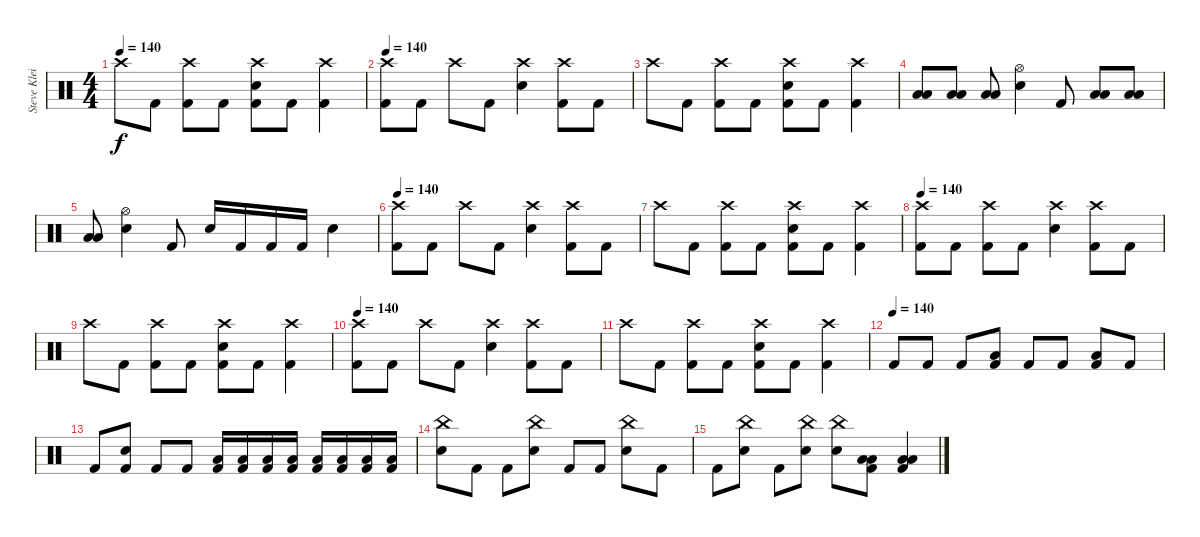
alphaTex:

\track ("Steve Kleisath" "Steve Klei") {instrument percussion}
\staff
\articulation defaults
\ts (4 4)
\tempo 140
\clef neutral
\ks c "Crash high (hit)".8{dy f} "Kick (hit) 2".8
("Crash high (hit)" "Kick (hit) 2").8 "Kick (hit) 2".8 ("Crash high (hit)" "Electric Snare (hit)" "Kick (hit) 2").8 "Kick (hit) 2".8 ("Crash high (hit)" "Kick (hit) 2").4 |
\tempo 140
("Crash high (hit)" "Kick (hit) 2").8 "Kick (hit) 2".8 "Crash high (hit)".8 "Kick (hit) 2".8 ("Crash high (hit)" "Electric Snare (hit)").4 ("Crash high (hit)" "Kick (hit) 2").8 "Kick (hit) 2".8 |
"Crash high (hit)".8 "Kick (hit) 2".8 ("Crash high (hit)" "Kick (hit) 2").8 "Kick (hit) 2".8 ("Crash high (hit)" "Electric Snare (hit)" "Kick (hit) 2").8 "Kick (hit) 2".8 ("Crash high (hit)" "Kick (hit) 2").4 |
("Low Tom (hit)" "Low Floor Tom (hit)").8 ("Low Tom (hit)" "Low Floor Tom (hit)").8 ("Low Tom (hit)" "Low Floor Tom (hit)").8 ("Hi-Hat (open)" "Electric Snare (hit)").4 "Kick (hit) 2".8 ("Low Tom (hit)" "Low Floor Tom (hit)").8 ("Low Tom (hit)" "Low Floor Tom (hit)").8 |
("Low Tom (hit)" "Low Floor Tom (hit)").8 ("Hi-Hat (open)" "Electric Snare (hit)").4 "Kick (hit) 2".8 "Electric Snare (hit)".16 "Kick (hit) 2".16 "Kick (hit) 2".16 "Kick (hit) 2".16 "Electric Snare (hit)".4 |
\tempo 140
("Crash high (hit)" "Kick (hit) 2").8 "Kick (hit) 2".8 "Crash high (hit)".8 "Kick (hit) 2".8 ("Crash high (hit)" "Electric Snare (hit)").4 ("Crash high (hit)" "Kick (hit) 2").8 "Kick (hit) 2".8 |
"Crash high (hit)".8 "Kick (hit) 2".8 ("Crash high (hit)" "Kick (hit) 2").8 "Kick (hit) 2".8 ("Crash high (hit)" "Electric Snare (hit)" "Kick (hit) 2").8 "Kick (hit) 2".8 ("Crash high (hit)" "Kick (hit) 2").4 |
\tempo 140
("Crash high (hit)" "Kick (hit) 2").8 "Kick (hit) 2".8 ("Crash high (hit)" "Kick (hit) 2").8 "Kick (hit) 2".8 ("Crash high (hit)" "Electric Snare (hit)").4 ("Crash high (hit)" "Kick (hit) 2").8 "Kick (hit) 2".8 |
"Crash high (hit)".8 "Kick (hit) 2".8 ("Crash high (hit)" "Kick (hit) 2").8 "Kick (hit) 2".8 ("Electric Snare (hit)" "Crash high (hit)" "Kick (hit) 2").8 "Kick (hit) 2".8 ("Crash high (hit)" "Kick (hit) 2").4 |
\tempo 140
("Crash high (hit)" "Kick (hit) 2").8 "Kick (hit) 2".8 "Crash high (hit)".8 "Kick (hit) 2".8 ("Crash high (hit)" "Electric Snare (hit)").4 ("Crash high (hit)" "Kick (hit) 2").8 "Kick (hit) 2".8 |
"Crash high (hit)".8 "Kick (hit) 2".8 ("Crash high (hit)" "Kick (hit) 2").8 "Kick (hit) 2".8 ("Electric Snare (hit)" "Crash high (hit)" "Kick (hit) 2").8 "Kick (hit) 2".8 ("Crash high (hit)" "Kick (hit) 2").4 |
\tempo (140)
"Kick (hit) 2".8 "Kick (hit) 2".8 "Kick (hit) 2".8 ("Low Tom (hit)" "Kick (hit) 2").8 "Kick (hit) 2".8 "Kick (hit) 2".8 ("Low Floor Tom (hit)" "Kick (hit) 2").8 "Kick (hit) 2".8 |
"Kick (hit) 2".8 ("Electric Snare (hit)" "Kick (hit) 2").8 "Kick (hit) 2".8 "Kick (hit) 2".8 ("Low Tom (hit)" "Kick (hit) 2").16 ("Low Tom (hit)" "Kick (hit) 2").16 ("Low Tom (hit)" "Kick (hit) 2").16 ("Low Tom (hit)" "Kick (hit) 2").16 ("Low Floor Tom (hit)" "Kick (hit) 2").16 ("Low Floor Tom (hit)" "Kick (hit) 2").16 ("Low Floor Tom (hit)" "Kick (hit) 2").16 ("Low Floor Tom (hit)" "Kick (hit) 2").16 |
("China (hit)" "Electric Snare (hit)").8 "Kick (hit) 2".8 "Kick (hit) 2".8 ("China (hit)" "Electric Snare (hit)").8 "Kick (hit) 2".8 "Kick (hit) 2".8 ("China (hit)" "Electric Snare (hit)").8 "Kick (hit) 2".8 |
"Kick (hit) 2".8 ("China (hit)" "Electric Snare (hit)").8 "Kick (hit) 2".8 ("China (hit)" "Electric Snare (hit)").8 ("China (hit)" "Electric Snare (hit)").8 ("Low Floor Tom (hit)" "Low Tom (hit)" "Kick (hit) 2").8 ("Low Floor Tom (hit)" "Low Tom (hit)" "Kick (hit) 2").4
